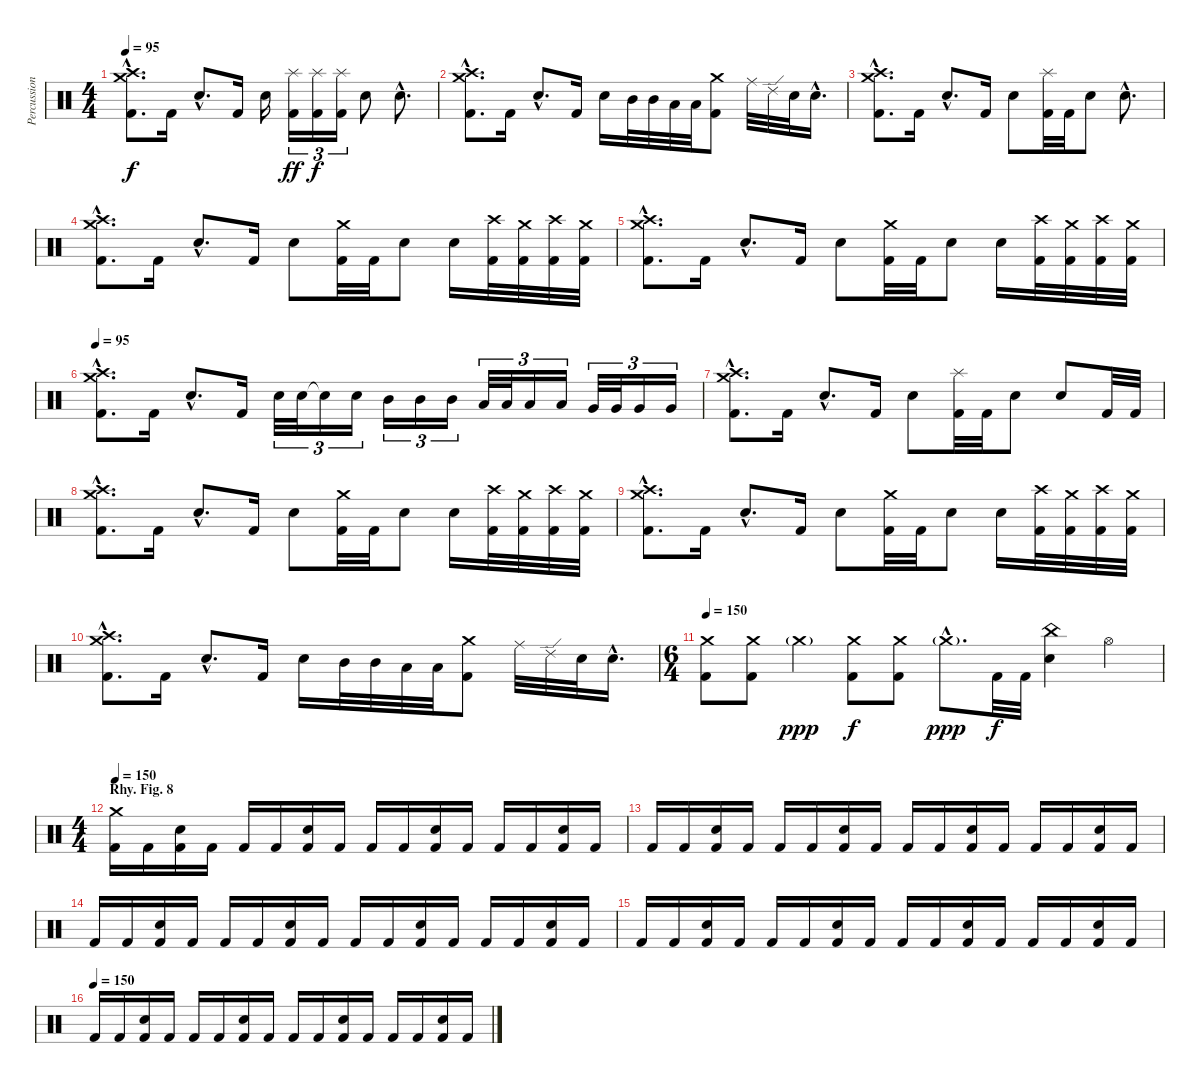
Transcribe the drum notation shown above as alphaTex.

\track ("Percussion" "Percussion") {instrument percussion}
\staff {score}
\articulation defaults
\ts (4 4)
\tempo 95
\clef neutral
\ks c
("Crash medium (hit)"{hac} "Crash high (hit)"{hac} "Kick (hit) 2"{hac}).8{d dy f} "Kick (hit) 2".16 "Snare (hit) 2"{hac}.8{d} "Kick (hit) 2".16 "Snare (hit) 2".16 ("Splash (hit)" "Kick (hit) 2").16{tu (3 2) dy ff} ("Splash (hit)" "Kick (hit) 2").16{tu (3 2) dy f} ("Splash (hit)" "Kick (hit) 2").16{tu (3 2)} "Snare (hit) 2".8 "Snare (hit) 2"{hac}.8{d} |
("Crash medium (hit)"{hac} "Crash high (hit)"{hac} "Kick (hit) 2"{hac}).8{d} "Kick (hit) 2".16 "Snare (hit) 2"{hac}.8{d} "Kick (hit) 2".16 "Snare (hit) 2".16 "Mid Tom (hit)".32 "Mid Tom (hit)".32 "Low Tom (hit)".32 "Low Tom (hit)".32 ("Crash medium (hit)" "Kick (hit) 2").8 "Ride (middle)".32 "Ride (edge) 2".32 "Snare (hit) 2".32 "Snare (hit) 2"{hac}.16{d} |
("Crash medium (hit)"{hac} "Crash high (hit)"{hac} "Kick (hit) 2"{hac}).8{d} "Kick (hit) 2".16 "Snare (hit) 2"{hac}.8{d} "Kick (hit) 2".16 "Snare (hit) 2".8 ("Splash (hit)" "Kick (hit) 2").32 "Kick (hit) 2".32 "Snare (hit) 2".8 "Snare (hit) 2"{hac}.8{d} |
("Crash medium (hit)"{hac} "Crash high (hit)"{hac} "Kick (hit) 2"{hac}).8{d} "Kick (hit) 2".16 "Snare (hit) 2"{hac}.8{d} "Kick (hit) 2".16 "Snare (hit) 2".8 ("Crash medium (hit)" "Kick (hit) 2").32 "Kick (hit) 2".32 "Snare (hit) 2".8 "Snare (hit) 2".16 ("Crash high (hit)" "Kick (hit) 2").32 ("Crash medium (hit)" "Kick (hit) 2").32 ("Crash high (hit)" "Kick (hit) 2").32 ("Crash medium (hit)" "Kick (hit) 2").32 |
("Crash medium (hit)"{hac} "Crash high (hit)"{hac} "Kick (hit) 2"{hac}).8{d} "Kick (hit) 2".16 "Snare (hit) 2"{hac}.8{d} "Kick (hit) 2".16 "Snare (hit) 2".8 ("Crash medium (hit)" "Kick (hit) 2").32 "Kick (hit) 2".32 "Snare (hit) 2".8 "Snare (hit) 2".16 ("Crash high (hit)" "Kick (hit) 2").32 ("Crash medium (hit)" "Kick (hit) 2").32 ("Crash high (hit)" "Kick (hit) 2").32 ("Crash medium (hit)" "Kick (hit) 2").32 |
\tempo 95
("Crash medium (hit)"{hac} "Crash high (hit)"{hac} "Kick (hit) 2"{hac}).8{d} "Kick (hit) 2".16 "Snare (hit) 2"{hac}.8{d} "Kick (hit) 2".16 "Snare (hit) 2".32{tu (3 2)} "Snare (hit) 2".32{tu (3 2)} "Snare (hit)"{t}.16{tu (3 2)} "Snare (hit) 2".16{tu (3 2)} "Mid Tom (hit)".16{tu (3 2)} "Mid Tom (hit)".16{tu (3 2)} "Mid Tom (hit)".16{tu (3 2)} "Low Tom (hit)".32{tu (3 2)} "Low Tom (hit)".32{tu (3 2)} "Low Tom (hit)".16{tu (3 2)} "Low Tom (hit)".16{tu (3 2)} "Very Low Tom (hit)".32{tu (3 2)} "Very Low Tom (hit)".32{tu (3 2)} "Very Low Tom (hit)".16{tu (3 2)} "Very Low Tom (hit)".16{tu (3 2)} |
("Crash medium (hit)"{hac} "Crash high (hit)"{hac} "Kick (hit) 2"{hac}).8{d} "Kick (hit) 2".16 "Snare (hit) 2"{hac}.8{d} "Kick (hit) 2".16 "Snare (hit) 2".8 ("Splash (hit)" "Kick (hit) 2").32 "Kick (hit) 2".32 "Snare (hit) 2".8 "Snare (hit) 2".8 "Kick (hit) 2".32 "Kick (hit) 2".32 |
("Crash medium (hit)"{hac} "Crash high (hit)"{hac} "Kick (hit) 2"{hac}).8{d} "Kick (hit) 2".16 "Snare (hit) 2"{hac}.8{d} "Kick (hit) 2".16 "Snare (hit) 2".8 ("Crash medium (hit)" "Kick (hit) 2").32 "Kick (hit) 2".32 "Snare (hit) 2".8 "Snare (hit) 2".16 ("Crash high (hit)" "Kick (hit) 2").32 ("Crash medium (hit)" "Kick (hit) 2").32 ("Crash high (hit)" "Kick (hit) 2").32 ("Crash medium (hit)" "Kick (hit) 2").32 |
("Crash medium (hit)"{hac} "Crash high (hit)"{hac} "Kick (hit) 2"{hac}).8{d} "Kick (hit) 2".16 "Snare (hit) 2"{hac}.8{d} "Kick (hit) 2".16 "Snare (hit) 2".8 ("Crash medium (hit)" "Kick (hit) 2").32 "Kick (hit) 2".32 "Snare (hit) 2".8 "Snare (hit) 2".16 ("Crash high (hit)" "Kick (hit) 2").32 ("Crash medium (hit)" "Kick (hit) 2").32 ("Crash high (hit)" "Kick (hit) 2").32 ("Crash medium (hit)" "Kick (hit) 2").32 |
("Crash medium (hit)"{hac} "Crash high (hit)"{hac} "Kick (hit) 2"{hac}).8{d} "Kick (hit) 2".16 "Snare (hit) 2"{hac}.8{d} "Kick (hit) 2".16 "Snare (hit) 2".16 "Mid Tom (hit)".32 "Mid Tom (hit)".32 "Low Tom (hit)".32 "Low Tom (hit)".32 ("Crash medium (hit)" "Kick (hit) 2").8 "Ride (middle)".32 "Ride (edge) 2".32 "Snare (hit) 2".32 "Snare (hit) 2"{hac}.16{d} |
\ts (6 4)
\tempo 150
("Crash medium (hit)" "Kick (hit) 2").8 ("Crash medium (hit)" "Kick (hit) 2").8 "Crash medium (hit)"{g}.4{dy ppp} ("Crash medium (hit)" "Kick (hit) 2").8{dy f} ("Crash medium (hit)" "Kick (hit) 2").8 "Crash medium (hit)"{g hac}.8{d dy ppp} "Kick (hit) 2".32{dy f} "Kick (hit) 2".32 ("China (hit)" "Snare (hit) 2").4 "Hi-Hat (open)".4 |
\ts (4 4)
\section ("" "Rhy. Fig. 8")
\tempo 150
("Crash medium (hit)" "Kick (hit) 2").16 "Kick (hit) 2".16 ("Snare (hit) 2" "Kick (hit) 2").16 "Kick (hit) 2".16 "Kick (hit) 2".16 "Kick (hit) 2".16 ("Snare (hit) 2" "Kick (hit) 2").16 "Kick (hit) 2".16 "Kick (hit) 2".16 "Kick (hit) 2".16 ("Snare (hit) 2" "Kick (hit) 2").16 "Kick (hit) 2".16 "Kick (hit) 2".16 "Kick (hit) 2".16 ("Snare (hit) 2" "Kick (hit) 2").16 "Kick (hit) 2".16 |
"Kick (hit) 2".16 "Kick (hit) 2".16 ("Snare (hit) 2" "Kick (hit) 2").16 "Kick (hit) 2".16 "Kick (hit) 2".16 "Kick (hit) 2".16 ("Snare (hit) 2" "Kick (hit) 2").16 "Kick (hit) 2".16 "Kick (hit) 2".16 "Kick (hit) 2".16 ("Snare (hit) 2" "Kick (hit) 2").16 "Kick (hit) 2".16 "Kick (hit) 2".16 "Kick (hit) 2".16 ("Snare (hit) 2" "Kick (hit) 2").16 "Kick (hit) 2".16 |
"Kick (hit) 2".16 "Kick (hit) 2".16 ("Snare (hit) 2" "Kick (hit) 2").16 "Kick (hit) 2".16 "Kick (hit) 2".16 "Kick (hit) 2".16 ("Snare (hit) 2" "Kick (hit) 2").16 "Kick (hit) 2".16 "Kick (hit) 2".16 "Kick (hit) 2".16 ("Snare (hit) 2" "Kick (hit) 2").16 "Kick (hit) 2".16 "Kick (hit) 2".16 "Kick (hit) 2".16 ("Snare (hit) 2" "Kick (hit) 2").16 "Kick (hit) 2".16 |
"Kick (hit) 2".16 "Kick (hit) 2".16 ("Snare (hit) 2" "Kick (hit) 2").16 "Kick (hit) 2".16 "Kick (hit) 2".16 "Kick (hit) 2".16 ("Snare (hit) 2" "Kick (hit) 2").16 "Kick (hit) 2".16 "Kick (hit) 2".16 "Kick (hit) 2".16 ("Snare (hit) 2" "Kick (hit) 2").16 "Kick (hit) 2".16 "Kick (hit) 2".16 "Kick (hit) 2".16 ("Snare (hit) 2" "Kick (hit) 2").16 "Kick (hit) 2".16 |
\tempo (150)
"Kick (hit) 2".16 "Kick (hit) 2".16 ("Snare (hit) 2" "Kick (hit) 2").16 "Kick (hit) 2".16 "Kick (hit) 2".16 "Kick (hit) 2".16 ("Snare (hit) 2" "Kick (hit) 2").16 "Kick (hit) 2".16 "Kick (hit) 2".16 "Kick (hit) 2".16 ("Snare (hit) 2" "Kick (hit) 2").16 "Kick (hit) 2".16 "Kick (hit) 2".16 "Kick (hit) 2".16 ("Snare (hit) 2" "Kick (hit) 2").16 "Kick (hit) 2".16
